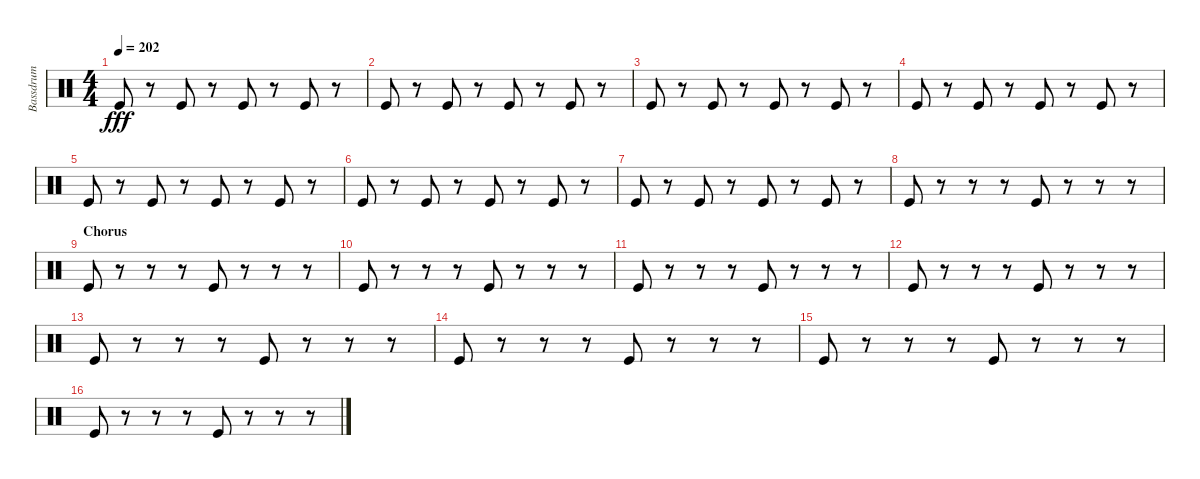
\track ("Bassdrum" "Bassdrum") {instrument percussion}
\staff {score}
\articulation defaults
\ts (4 4)
\tempo 202
\clef neutral
\ks c "Kick (hit)".8{dy fff}
r.8 "Kick (hit)".8 r.8 "Kick (hit)".8 r.8 "Kick (hit)".8 r.8 |
"Kick (hit)".8 r.8 "Kick (hit)".8 r.8 "Kick (hit)".8 r.8 "Kick (hit)".8 r.8 |
"Kick (hit)".8 r.8 "Kick (hit)".8 r.8 "Kick (hit)".8 r.8 "Kick (hit)".8 r.8 |
"Kick (hit)".8 r.8 "Kick (hit)".8 r.8 "Kick (hit)".8 r.8 "Kick (hit)".8 r.8 |
"Kick (hit)".8 r.8 "Kick (hit)".8 r.8 "Kick (hit)".8 r.8 "Kick (hit)".8 r.8 |
"Kick (hit)".8 r.8 "Kick (hit)".8 r.8 "Kick (hit)".8 r.8 "Kick (hit)".8 r.8 |
"Kick (hit)".8 r.8 "Kick (hit)".8 r.8 "Kick (hit)".8 r.8 "Kick (hit)".8 r.8 |
"Kick (hit)".8 r.8 r.8 r.8 "Kick (hit)".8 r.8 r.8 r.8 |
\section ("" "Chorus")
"Kick (hit)".8 r.8 r.8 r.8 "Kick (hit)".8 r.8 r.8 r.8 |
"Kick (hit)".8 r.8 r.8 r.8 "Kick (hit)".8 r.8 r.8 r.8 |
"Kick (hit)".8 r.8 r.8 r.8 "Kick (hit)".8 r.8 r.8 r.8 |
"Kick (hit)".8 r.8 r.8 r.8 "Kick (hit)".8 r.8 r.8 r.8 |
"Kick (hit)".8 r.8 r.8 r.8 "Kick (hit)".8 r.8 r.8 r.8 |
"Kick (hit)".8 r.8 r.8 r.8 "Kick (hit)".8 r.8 r.8 r.8 |
"Kick (hit)".8 r.8 r.8 r.8 "Kick (hit)".8 r.8 r.8 r.8 |
"Kick (hit)".8 r.8 r.8 r.8 "Kick (hit)".8 r.8 r.8 r.8
